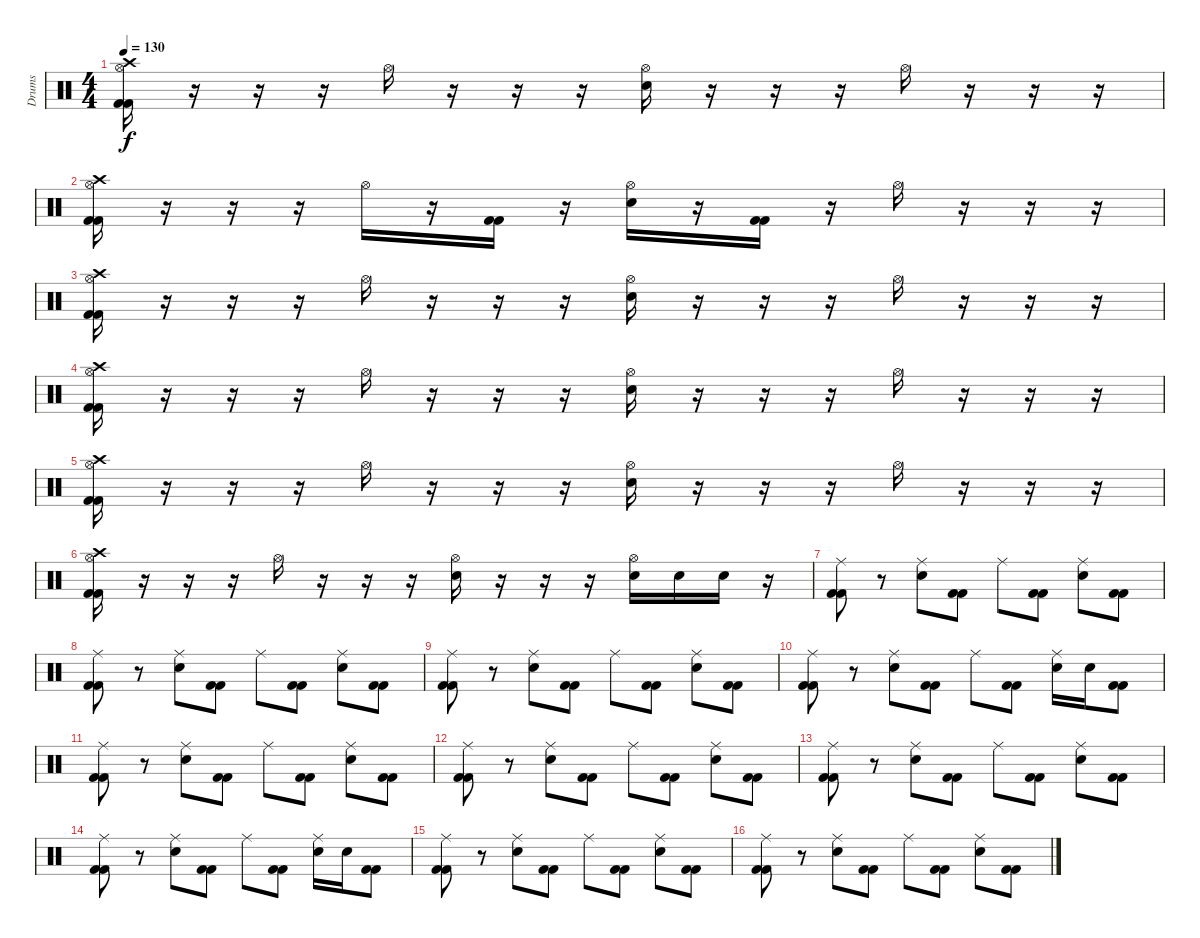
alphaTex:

\track ("Drums" "Drums") {instrument percussion}
\staff {score}
\articulation defaults
\ts (4 4)
\tempo 130
\clef neutral
\ks c
("Crash high (hit)" "Hi-Hat (open)" "Kick (hit) 2" "Kick (hit) 2").16{dy f} r.16 r.16 r.16 "Hi-Hat (open)".16 r.16 r.16 r.16 ("Hi-Hat (open)" "Electric Snare (hit)").16 r.16 r.16 r.16 "Hi-Hat (open)".16 r.16 r.16 r.16 |
("Crash high (hit)" "Hi-Hat (open)" "Kick (hit) 2" "Kick (hit) 2").16 r.16 r.16 r.16 "Hi-Hat (open)".16 r.16 ("Kick (hit) 2" "Kick (hit) 2").16 r.16 ("Hi-Hat (open)" "Electric Snare (hit)").16 r.16 ("Kick (hit) 2" "Kick (hit) 2").16 r.16 "Hi-Hat (open)".16 r.16 r.16 r.16 |
("Crash high (hit)" "Hi-Hat (open)" "Kick (hit) 2" "Kick (hit) 2").16 r.16 r.16 r.16 "Hi-Hat (open)".16 r.16 r.16 r.16 ("Hi-Hat (open)" "Electric Snare (hit)").16 r.16 r.16 r.16 "Hi-Hat (open)".16 r.16 r.16 r.16 |
("Crash high (hit)" "Hi-Hat (open)" "Kick (hit) 2" "Kick (hit) 2").16 r.16 r.16 r.16 "Hi-Hat (open)".16 r.16 r.16 r.16 ("Hi-Hat (open)" "Electric Snare (hit)").16 r.16 r.16 r.16 "Hi-Hat (open)".16 r.16 r.16 r.16 |
("Crash high (hit)" "Hi-Hat (open)" "Kick (hit) 2" "Kick (hit) 2").16 r.16 r.16 r.16 "Hi-Hat (open)".16 r.16 r.16 r.16 ("Hi-Hat (open)" "Electric Snare (hit)").16 r.16 r.16 r.16 "Hi-Hat (open)".16 r.16 r.16 r.16 |
("Crash high (hit)" "Hi-Hat (open)" "Kick (hit) 2" "Kick (hit) 2").16 r.16 r.16 r.16 "Hi-Hat (open)".16 r.16 r.16 r.16 ("Hi-Hat (open)" "Electric Snare (hit)").16 r.16 r.16 r.16 ("Hi-Hat (open)" "Electric Snare (hit)").16 "Electric Snare (hit)".16 "Electric Snare (hit)".16 r.16 |
("Ride (middle)" "Kick (hit) 2" "Kick (hit) 2").8 r.8 ("Ride (middle)" "Electric Snare (hit)").8 ("Kick (hit) 2" "Kick (hit) 2").8 "Ride (middle)".8 ("Kick (hit) 2" "Kick (hit) 2").8 ("Ride (middle)" "Electric Snare (hit)").8 ("Kick (hit) 2" "Kick (hit) 2").8 |
("Ride (middle)" "Kick (hit) 2" "Kick (hit) 2").8 r.8 ("Ride (middle)" "Electric Snare (hit)").8 ("Kick (hit) 2" "Kick (hit) 2").8 "Ride (middle)".8 ("Kick (hit) 2" "Kick (hit) 2").8 ("Ride (middle)" "Electric Snare (hit)").8 ("Kick (hit) 2" "Kick (hit) 2").8 |
("Ride (middle)" "Kick (hit) 2" "Kick (hit) 2").8 r.8 ("Ride (middle)" "Electric Snare (hit)").8 ("Kick (hit) 2" "Kick (hit) 2").8 "Ride (middle)".8 ("Kick (hit) 2" "Kick (hit) 2").8 ("Ride (middle)" "Electric Snare (hit)").8 ("Kick (hit) 2" "Kick (hit) 2").8 |
("Ride (middle)" "Kick (hit) 2" "Kick (hit) 2").8 r.8 ("Ride (middle)" "Electric Snare (hit)").8 ("Kick (hit) 2" "Kick (hit) 2").8 "Ride (middle)".8 ("Kick (hit) 2" "Kick (hit) 2").8 ("Ride (middle)" "Electric Snare (hit)").16 "Electric Snare (hit)".16 ("Kick (hit) 2" "Kick (hit) 2").8 |
("Ride (middle)" "Kick (hit) 2" "Kick (hit) 2").8 r.8 ("Ride (middle)" "Electric Snare (hit)").8 ("Kick (hit) 2" "Kick (hit) 2").8 "Ride (middle)".8 ("Kick (hit) 2" "Kick (hit) 2").8 ("Ride (middle)" "Electric Snare (hit)").8 ("Kick (hit) 2" "Kick (hit) 2").8 |
("Ride (middle)" "Kick (hit) 2" "Kick (hit) 2").8 r.8 ("Ride (middle)" "Electric Snare (hit)").8 ("Kick (hit) 2" "Kick (hit) 2").8 "Ride (middle)".8 ("Kick (hit) 2" "Kick (hit) 2").8 ("Ride (middle)" "Electric Snare (hit)").8 ("Kick (hit) 2" "Kick (hit) 2").8 |
("Ride (middle)" "Kick (hit) 2" "Kick (hit) 2").8 r.8 ("Ride (middle)" "Electric Snare (hit)").8 ("Kick (hit) 2" "Kick (hit) 2").8 "Ride (middle)".8 ("Kick (hit) 2" "Kick (hit) 2").8 ("Ride (middle)" "Electric Snare (hit)").8 ("Kick (hit) 2" "Kick (hit) 2").8 |
("Ride (middle)" "Kick (hit) 2" "Kick (hit) 2").8 r.8 ("Ride (middle)" "Electric Snare (hit)").8 ("Kick (hit) 2" "Kick (hit) 2").8 "Ride (middle)".8 ("Kick (hit) 2" "Kick (hit) 2").8 ("Ride (middle)" "Electric Snare (hit)").16 "Electric Snare (hit)".16 ("Kick (hit) 2" "Kick (hit) 2").8 |
("Ride (middle)" "Kick (hit) 2" "Kick (hit) 2").8 r.8 ("Ride (middle)" "Electric Snare (hit)").8 ("Kick (hit) 2" "Kick (hit) 2").8 "Ride (middle)".8 ("Kick (hit) 2" "Kick (hit) 2").8 ("Ride (middle)" "Electric Snare (hit)").8 ("Kick (hit) 2" "Kick (hit) 2").8 |
("Ride (middle)" "Kick (hit) 2" "Kick (hit) 2").8 r.8 ("Ride (middle)" "Electric Snare (hit)").8 ("Kick (hit) 2" "Kick (hit) 2").8 "Ride (middle)".8 ("Kick (hit) 2" "Kick (hit) 2").8 ("Ride (middle)" "Electric Snare (hit)").8 ("Kick (hit) 2" "Kick (hit) 2").8
